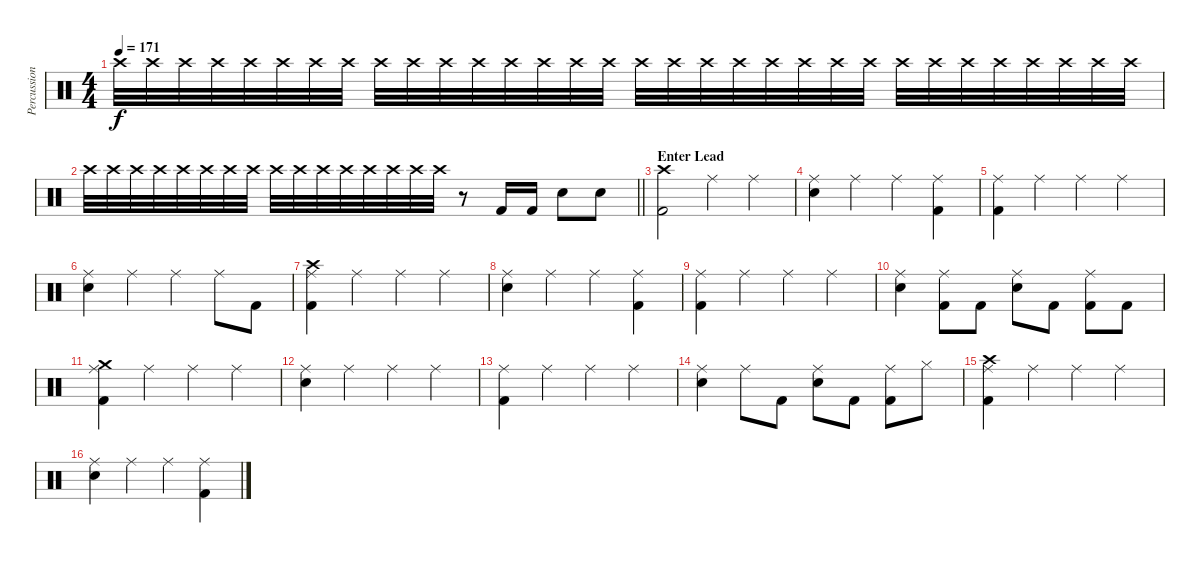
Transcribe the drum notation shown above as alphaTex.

\track ("Percussion" "Percussion") {instrument percussion}
\staff {score}
\articulation defaults
\ts (4 4)
\tempo 171
\clef neutral
\ks c "Crash high (hit)".32{dy f volume 16} "Crash high (hit)".32 "Crash high (hit)".32 "Crash high (hit)".32 "Crash high (hit)".32 "Crash high (hit)".32 "Crash high (hit)".32 "Crash high (hit)".32 "Crash high (hit)".32 "Crash high (hit)".32 "Crash high (hit)".32 "Crash high (hit)".32 "Crash high (hit)".32 "Crash high (hit)".32 "Crash high (hit)".32 "Crash high (hit)".32 "Crash high (hit)".32 "Crash high (hit)".32 "Crash high (hit)".32 "Crash high (hit)".32 "Crash high (hit)".32 "Crash high (hit)".32 "Crash high (hit)".32 "Crash high (hit)".32 "Crash high (hit)".32 "Crash high (hit)".32 "Crash high (hit)".32 "Crash high (hit)".32 "Crash high (hit)".32 "Crash high (hit)".32 "Crash high (hit)".32 "Crash high (hit)".32
|
\barLineRight lightlight "Crash high (hit)".32 "Crash high (hit)".32 "Crash high (hit)".32 "Crash high (hit)".32 "Crash high (hit)".32 "Crash high (hit)".32 "Crash high (hit)".32 "Crash high (hit)".32 "Crash high (hit)".32 "Crash high (hit)".32 "Crash high (hit)".32 "Crash high (hit)".32 "Crash high (hit)".32 "Crash high (hit)".32 "Crash high (hit)".32 "Crash high (hit)".32
r.8 "Kick (hit) 2".16 "Kick (hit) 2".16 "Snare (hit) 2".8 "Snare (hit) 2".8 |
\section ("" "Enter Lead")
("Crash high (hit)" "Kick (hit) 2").2 "Ride (middle)".4 "Ride (middle)".4 |
("Ride (middle)" "Snare (hit) 2").4 "Ride (middle)".4 "Ride (middle)".4 ("Ride (middle)" "Kick (hit) 2").4 |
("Ride (middle)" "Kick (hit) 2").4 "Ride (middle)".4 "Ride (middle)".4 "Ride (middle)".4 |
("Ride (middle)" "Snare (hit) 2").4 "Ride (middle)".4 "Ride (middle)".4 "Ride (middle)".8 "Kick (hit) 2".8 |
("Ride (middle)" "Crash high (hit)" "Kick (hit) 2").4 "Ride (middle)".4 "Ride (middle)".4 "Ride (middle)".4 |
("Ride (middle)" "Snare (hit) 2").4 "Ride (middle)".4 "Ride (middle)".4 ("Ride (middle)" "Kick (hit) 2").4 |
("Ride (middle)" "Kick (hit) 2").4 "Ride (middle)".4 "Ride (middle)".4 "Ride (middle)".4 |
("Ride (middle)" "Snare (hit) 2").4 ("Ride (middle)" "Kick (hit) 2").8 "Kick (hit) 2".8 ("Ride (middle)" "Snare (hit) 2").8 "Kick (hit) 2".8 ("Ride (middle)" "Kick (hit) 2").8 "Kick (hit) 2".8 |
("Ride (middle)" "Crash medium (hit)" "Kick (hit) 2").4 "Ride (middle)".4 "Ride (middle)".4 "Ride (middle)".4 |
("Ride (middle)" "Snare (hit) 2").4 "Ride (middle)".4 "Ride (middle)".4 "Ride (middle)".4 |
("Ride (middle)" "Kick (hit) 2").4 "Ride (middle)".4 "Ride (middle)".4 "Ride (middle)".4 |
("Ride (middle)" "Snare (hit) 2").4 "Ride (middle)".8 "Kick (hit) 2".8 ("Ride (middle)" "Snare (hit) 2").8 "Kick (hit) 2".8 ("Ride (middle)" "Kick (hit) 2").8 "Hi-Hat (closed)".8 |
("Ride (middle)" "Crash high (hit)" "Kick (hit) 2").4 "Ride (middle)".4 "Ride (middle)".4 "Ride (middle)".4 |
("Ride (middle)" "Snare (hit) 2").4 "Ride (middle)".4 "Ride (middle)".4 ("Ride (middle)" "Kick (hit) 2").4
